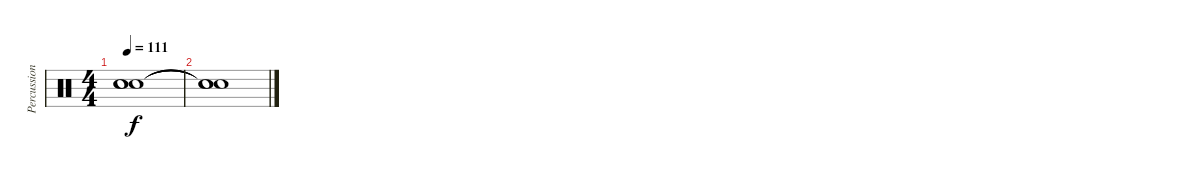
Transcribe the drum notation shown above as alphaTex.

\track ("Percussioni" "Percussion") {instrument percussion}
\staff {score}
\articulation defaults
\ts (4 4)
\tempo 111
\clef neutral
\ks c
("Snare (hit)"{t} "Snare (hit)"{t} "Snare (hit)"{t}).1{dy f} |
("Snare (hit)"{t} "Snare (hit)"{t} "Snare (hit)"{t}).1
